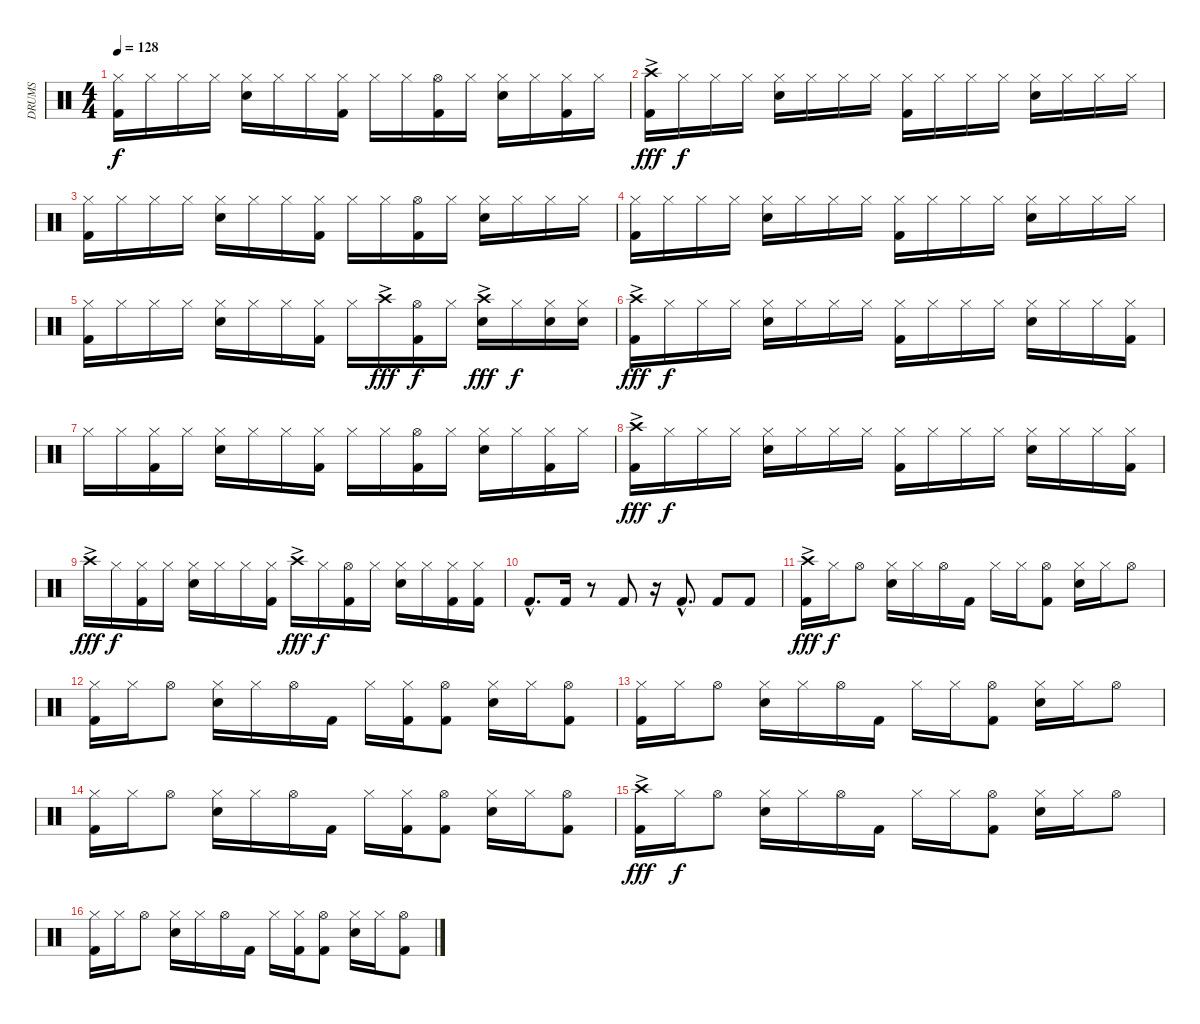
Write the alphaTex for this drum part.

\track ("DRUMS" "DRUMS") {instrument percussion}
\staff {score}
\articulation defaults
\ts (4 4)
\tempo 128
\clef neutral
\ks c
("Hi-Hat (closed)" "Kick (hit) 2").16{dy f} "Hi-Hat (closed)".16 "Hi-Hat (closed)".16 "Hi-Hat (closed)".16 ("Hi-Hat (closed)" "Snare (hit) 2").16 "Hi-Hat (closed)".16 "Hi-Hat (closed)".16 ("Hi-Hat (closed)" "Kick (hit) 2").16 "Hi-Hat (closed)".16 "Hi-Hat (closed)".16 ("Hi-Hat (open)" "Kick (hit) 2").16 "Hi-Hat (closed)".16 ("Hi-Hat (closed)" "Snare (hit) 2").16 "Hi-Hat (closed)".16 ("Hi-Hat (closed)" "Kick (hit) 2").16 "Hi-Hat (closed)".16 |
("Crash high (hit)"{ac} "Kick (hit) 2").16{dy fff} "Hi-Hat (closed)".16{dy f} "Hi-Hat (closed)".16 "Hi-Hat (closed)".16 ("Hi-Hat (closed)" "Snare (hit) 2").16 "Hi-Hat (closed)".16 "Hi-Hat (closed)".16 "Hi-Hat (closed)".16 ("Hi-Hat (closed)" "Kick (hit) 2").16 "Hi-Hat (closed)".16 "Hi-Hat (closed)".16 "Hi-Hat (closed)".16 ("Hi-Hat (closed)" "Snare (hit) 2").16 "Hi-Hat (closed)".16 "Hi-Hat (closed)".16 "Hi-Hat (closed)".16 |
("Hi-Hat (closed)" "Kick (hit) 2").16 "Hi-Hat (closed)".16 "Hi-Hat (closed)".16 "Hi-Hat (closed)".16 ("Hi-Hat (closed)" "Snare (hit) 2").16 "Hi-Hat (closed)".16 "Hi-Hat (closed)".16 ("Hi-Hat (closed)" "Kick (hit) 2").16 "Hi-Hat (closed)".16 "Hi-Hat (closed)".16 ("Hi-Hat (open)" "Kick (hit) 2").16 "Hi-Hat (closed)".16 ("Hi-Hat (closed)" "Snare (hit) 2").16 "Hi-Hat (closed)".16 "Hi-Hat (closed)".16 "Hi-Hat (closed)".16 |
("Hi-Hat (closed)" "Kick (hit) 2").16 "Hi-Hat (closed)".16 "Hi-Hat (closed)".16 "Hi-Hat (closed)".16 ("Hi-Hat (closed)" "Snare (hit) 2").16 "Hi-Hat (closed)".16 "Hi-Hat (closed)".16 "Hi-Hat (closed)".16 ("Hi-Hat (closed)" "Kick (hit) 2").16 "Hi-Hat (closed)".16 "Hi-Hat (closed)".16 "Hi-Hat (closed)".16 ("Hi-Hat (closed)" "Snare (hit) 2").16 "Hi-Hat (closed)".16 "Hi-Hat (closed)".16 "Hi-Hat (closed)".16 |
("Hi-Hat (closed)" "Kick (hit) 2").16 "Hi-Hat (closed)".16 "Hi-Hat (closed)".16 "Hi-Hat (closed)".16 ("Hi-Hat (closed)" "Snare (hit) 2").16 "Hi-Hat (closed)".16 "Hi-Hat (closed)".16 ("Hi-Hat (closed)" "Kick (hit) 2").16 "Hi-Hat (closed)".16 "Crash high (hit)"{ac}.16{dy fff} ("Hi-Hat (open)" "Kick (hit) 2").16{dy f} "Hi-Hat (closed)".16 ("Crash high (hit)"{ac} "Snare (hit) 2").16{dy fff} "Hi-Hat (closed)".16{dy f} ("Hi-Hat (closed)" "Snare (hit) 2").16 ("Hi-Hat (closed)" "Snare (hit) 2").16 |
("Crash high (hit)"{ac} "Kick (hit) 2").16{dy fff} "Hi-Hat (closed)".16{dy f} "Hi-Hat (closed)".16 "Hi-Hat (closed)".16 ("Hi-Hat (closed)" "Snare (hit) 2").16 "Hi-Hat (closed)".16 "Hi-Hat (closed)".16 "Hi-Hat (closed)".16 ("Hi-Hat (closed)" "Kick (hit) 2").16 "Hi-Hat (closed)".16 "Hi-Hat (closed)".16 "Hi-Hat (closed)".16 ("Hi-Hat (closed)" "Snare (hit) 2").16 "Hi-Hat (closed)".16 "Hi-Hat (closed)".16 ("Hi-Hat (closed)" "Kick (hit) 2").16 |
"Hi-Hat (closed)".16 "Hi-Hat (closed)".16 ("Hi-Hat (closed)" "Kick (hit) 2").16 "Hi-Hat (closed)".16 ("Hi-Hat (closed)" "Snare (hit) 2").16 "Hi-Hat (closed)".16 "Hi-Hat (closed)".16 ("Hi-Hat (closed)" "Kick (hit) 2").16 "Hi-Hat (closed)".16 "Hi-Hat (closed)".16 ("Hi-Hat (open)" "Kick (hit) 2").16 "Hi-Hat (closed)".16 ("Hi-Hat (closed)" "Snare (hit) 2").16 "Hi-Hat (closed)".16 ("Hi-Hat (closed)" "Kick (hit) 2").16 "Hi-Hat (closed)".16 |
("Crash high (hit)"{ac} "Kick (hit) 2").16{dy fff} "Hi-Hat (closed)".16{dy f} "Hi-Hat (closed)".16 "Hi-Hat (closed)".16 ("Hi-Hat (closed)" "Snare (hit) 2").16 "Hi-Hat (closed)".16 "Hi-Hat (closed)".16 "Hi-Hat (closed)".16 ("Hi-Hat (closed)" "Kick (hit) 2").16 "Hi-Hat (closed)".16 "Hi-Hat (closed)".16 "Hi-Hat (closed)".16 ("Hi-Hat (closed)" "Snare (hit) 2").16 "Hi-Hat (closed)".16 "Hi-Hat (closed)".16 ("Hi-Hat (closed)" "Kick (hit) 2").16 |
"Crash high (hit)"{ac}.16{dy fff} "Hi-Hat (closed)".16{dy f} ("Hi-Hat (closed)" "Kick (hit) 2").16 "Hi-Hat (closed)".16 ("Hi-Hat (closed)" "Snare (hit) 2").16 "Hi-Hat (closed)".16 "Hi-Hat (closed)".16 ("Hi-Hat (closed)" "Kick (hit) 2").16 "Crash high (hit)"{ac}.16{dy fff} "Hi-Hat (closed)".16{dy f} ("Hi-Hat (open)" "Kick (hit) 2").16 "Hi-Hat (closed)".16 ("Hi-Hat (closed)" "Snare (hit) 2").16 "Hi-Hat (closed)".16 ("Hi-Hat (closed)" "Kick (hit) 2").16 ("Hi-Hat (closed)" "Kick (hit) 2").16 |
"Kick (hit) 2"{hac}.8{d} "Kick (hit) 2".16 r.8 "Kick (hit) 2".8 r.16 "Kick (hit) 2"{hac}.8{d} "Kick (hit) 2".8 "Kick (hit) 2".8 |
("Crash high (hit)"{ac} "Kick (hit) 2").16{dy fff} "Hi-Hat (closed)".16{dy f} "Hi-Hat (open)".8 ("Hi-Hat (closed)" "Snare (hit) 2").16 "Hi-Hat (closed)".16 "Hi-Hat (open)".16 "Kick (hit) 2".16 "Hi-Hat (closed)".16 "Hi-Hat (closed)".16 ("Hi-Hat (open)" "Kick (hit) 2").8 ("Hi-Hat (closed)" "Snare (hit) 2").16 "Hi-Hat (closed)".16 "Hi-Hat (open)".8 |
("Hi-Hat (closed)" "Kick (hit) 2").16 "Hi-Hat (closed)".16 "Hi-Hat (open)".8 ("Hi-Hat (closed)" "Snare (hit) 2").16 "Hi-Hat (closed)".16 "Hi-Hat (open)".16 "Kick (hit) 2".16 "Hi-Hat (closed)".16 ("Hi-Hat (closed)" "Kick (hit) 2").16 ("Hi-Hat (open)" "Kick (hit) 2").8 ("Hi-Hat (closed)" "Snare (hit) 2").16 "Hi-Hat (closed)".16 ("Hi-Hat (open)" "Kick (hit) 2").8 |
("Hi-Hat (closed)" "Kick (hit) 2").16 "Hi-Hat (closed)".16 "Hi-Hat (open)".8 ("Hi-Hat (closed)" "Snare (hit) 2").16 "Hi-Hat (closed)".16 "Hi-Hat (open)".16 "Kick (hit) 2".16 "Hi-Hat (closed)".16 "Hi-Hat (closed)".16 ("Hi-Hat (open)" "Kick (hit) 2").8 ("Hi-Hat (closed)" "Snare (hit) 2").16 "Hi-Hat (closed)".16 "Hi-Hat (open)".8 |
("Hi-Hat (closed)" "Kick (hit) 2").16 "Hi-Hat (closed)".16 "Hi-Hat (open)".8 ("Hi-Hat (closed)" "Snare (hit) 2").16 "Hi-Hat (closed)".16 "Hi-Hat (open)".16 "Kick (hit) 2".16 "Hi-Hat (closed)".16 ("Hi-Hat (closed)" "Kick (hit) 2").16 ("Hi-Hat (open)" "Kick (hit) 2").8 ("Hi-Hat (closed)" "Snare (hit) 2").16 "Hi-Hat (closed)".16 ("Hi-Hat (open)" "Kick (hit) 2").8 |
("Crash high (hit)"{ac} "Kick (hit) 2").16{dy fff} "Hi-Hat (closed)".16{dy f} "Hi-Hat (open)".8 ("Hi-Hat (closed)" "Snare (hit) 2").16 "Hi-Hat (closed)".16 "Hi-Hat (open)".16 "Kick (hit) 2".16 "Hi-Hat (closed)".16 "Hi-Hat (closed)".16 ("Hi-Hat (open)" "Kick (hit) 2").8 ("Hi-Hat (closed)" "Snare (hit) 2").16 "Hi-Hat (closed)".16 "Hi-Hat (open)".8 |
("Hi-Hat (closed)" "Kick (hit) 2").16 "Hi-Hat (closed)".16 "Hi-Hat (open)".8 ("Hi-Hat (closed)" "Snare (hit) 2").16 "Hi-Hat (closed)".16 "Hi-Hat (open)".16 "Kick (hit) 2".16 "Hi-Hat (closed)".16 ("Hi-Hat (closed)" "Kick (hit) 2").16 ("Hi-Hat (open)" "Kick (hit) 2").8 ("Hi-Hat (closed)" "Snare (hit) 2").16 "Hi-Hat (closed)".16 ("Hi-Hat (open)" "Kick (hit) 2").8
